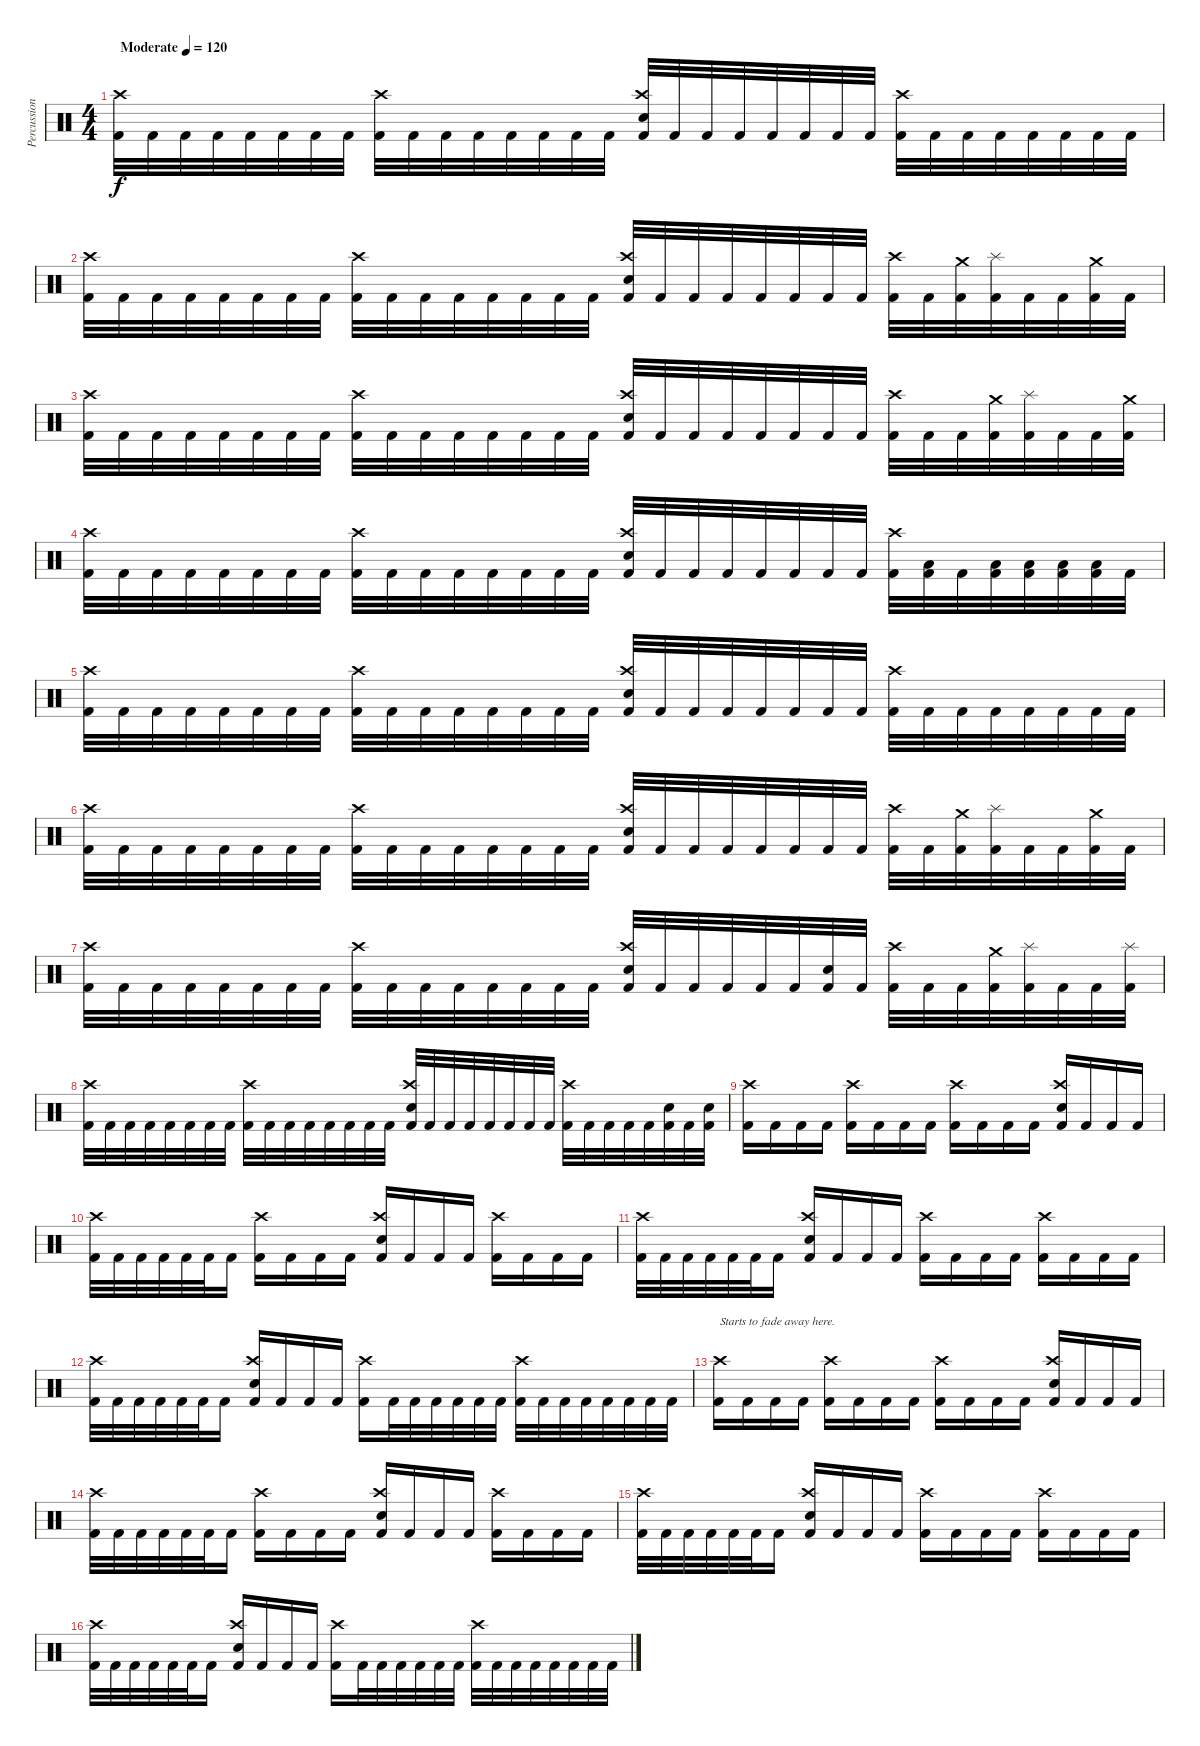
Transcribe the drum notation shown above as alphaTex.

\track ("Percussion" "Percussion") {instrument percussion}
\staff {score}
\articulation defaults
\ts (4 4)
\tempo (120 "Moderate")
\clef neutral
\ks c
("Kick (hit) 2" "Crash high (hit)").32{dy f} "Kick (hit) 2".32 "Kick (hit) 2".32 "Kick (hit) 2".32 "Kick (hit) 2".32 "Kick (hit) 2".32 "Kick (hit) 2".32 "Kick (hit) 2".32 ("Kick (hit) 2" "Crash high (hit)").32 "Kick (hit) 2".32 "Kick (hit) 2".32 "Kick (hit) 2".32 "Kick (hit) 2".32 "Kick (hit) 2".32 "Kick (hit) 2".32 "Kick (hit) 2".32 ("Kick (hit) 2" "Electric Snare (hit)" "Crash high (hit)").32 "Kick (hit) 2".32 "Kick (hit) 2".32 "Kick (hit) 2".32 "Kick (hit) 2".32 "Kick (hit) 2".32 "Kick (hit) 2".32 "Kick (hit) 2".32 ("Kick (hit) 2" "Crash high (hit)").32 "Kick (hit) 2".32 "Kick (hit) 2".32 "Kick (hit) 2".32 "Kick (hit) 2".32 "Kick (hit) 2".32 "Kick (hit) 2".32 "Kick (hit) 2".32 |
("Kick (hit) 2" "Crash high (hit)").32 "Kick (hit) 2".32 "Kick (hit) 2".32 "Kick (hit) 2".32 "Kick (hit) 2".32 "Kick (hit) 2".32 "Kick (hit) 2".32 "Kick (hit) 2".32 ("Kick (hit) 2" "Crash high (hit)").32 "Kick (hit) 2".32 "Kick (hit) 2".32 "Kick (hit) 2".32 "Kick (hit) 2".32 "Kick (hit) 2".32 "Kick (hit) 2".32 "Kick (hit) 2".32 ("Kick (hit) 2" "Electric Snare (hit)" "Crash high (hit)").32 "Kick (hit) 2".32 "Kick (hit) 2".32 "Kick (hit) 2".32 "Kick (hit) 2".32 "Kick (hit) 2".32 "Kick (hit) 2".32 "Kick (hit) 2".32 ("Kick (hit) 2" "Crash high (hit)").32 "Kick (hit) 2".32 ("Kick (hit) 2" "Crash medium (hit)").32 ("Kick (hit) 2" "Splash (hit)").32 "Kick (hit) 2".32 "Kick (hit) 2".32 ("Kick (hit) 2" "Crash medium (hit)").32 "Kick (hit) 2".32 |
("Kick (hit) 2" "Crash high (hit)").32 "Kick (hit) 2".32 "Kick (hit) 2".32 "Kick (hit) 2".32 "Kick (hit) 2".32 "Kick (hit) 2".32 "Kick (hit) 2".32 "Kick (hit) 2".32 ("Kick (hit) 2" "Crash high (hit)").32 "Kick (hit) 2".32 "Kick (hit) 2".32 "Kick (hit) 2".32 "Kick (hit) 2".32 "Kick (hit) 2".32 "Kick (hit) 2".32 "Kick (hit) 2".32 ("Kick (hit) 2" "Electric Snare (hit)" "Crash high (hit)").32 "Kick (hit) 2".32 "Kick (hit) 2".32 "Kick (hit) 2".32 "Kick (hit) 2".32 "Kick (hit) 2".32 "Kick (hit) 2".32 "Kick (hit) 2".32 ("Kick (hit) 2" "Crash high (hit)").32 "Kick (hit) 2".32 "Kick (hit) 2".32 ("Kick (hit) 2" "Crash medium (hit)").32 ("Kick (hit) 2" "Splash (hit)").32 "Kick (hit) 2".32 "Kick (hit) 2".32 ("Kick (hit) 2" "Crash medium (hit)").32 |
("Kick (hit) 2" "Crash high (hit)").32 "Kick (hit) 2".32 "Kick (hit) 2".32 "Kick (hit) 2".32 "Kick (hit) 2".32 "Kick (hit) 2".32 "Kick (hit) 2".32 "Kick (hit) 2".32 ("Kick (hit) 2" "Crash high (hit)").32 "Kick (hit) 2".32 "Kick (hit) 2".32 "Kick (hit) 2".32 "Kick (hit) 2".32 "Kick (hit) 2".32 "Kick (hit) 2".32 "Kick (hit) 2".32 ("Kick (hit) 2" "Electric Snare (hit)" "Crash high (hit)").32 "Kick (hit) 2".32 "Kick (hit) 2".32 "Kick (hit) 2".32 "Kick (hit) 2".32 "Kick (hit) 2".32 "Kick (hit) 2".32 "Kick (hit) 2".32 ("Kick (hit) 2" "Crash high (hit)").32 ("Kick (hit) 2" "Low Tom (hit)").32 "Kick (hit) 2".32 ("Kick (hit) 2" "Low Floor Tom (hit)").32 ("Kick (hit) 2" "Low Floor Tom (hit)").32 ("Kick (hit) 2" "Low Tom (hit)").32 ("Kick (hit) 2" "Low Tom (hit)").32 "Kick (hit) 2".32 |
("Kick (hit) 2" "Crash high (hit)").32 "Kick (hit) 2".32 "Kick (hit) 2".32 "Kick (hit) 2".32 "Kick (hit) 2".32 "Kick (hit) 2".32 "Kick (hit) 2".32 "Kick (hit) 2".32 ("Kick (hit) 2" "Crash high (hit)").32 "Kick (hit) 2".32 "Kick (hit) 2".32 "Kick (hit) 2".32 "Kick (hit) 2".32 "Kick (hit) 2".32 "Kick (hit) 2".32 "Kick (hit) 2".32 ("Kick (hit) 2" "Electric Snare (hit)" "Crash high (hit)").32 "Kick (hit) 2".32 "Kick (hit) 2".32 "Kick (hit) 2".32 "Kick (hit) 2".32 "Kick (hit) 2".32 "Kick (hit) 2".32 "Kick (hit) 2".32 ("Kick (hit) 2" "Crash high (hit)").32 "Kick (hit) 2".32 "Kick (hit) 2".32 "Kick (hit) 2".32 "Kick (hit) 2".32 "Kick (hit) 2".32 "Kick (hit) 2".32 "Kick (hit) 2".32 |
("Kick (hit) 2" "Crash high (hit)").32 "Kick (hit) 2".32 "Kick (hit) 2".32 "Kick (hit) 2".32 "Kick (hit) 2".32 "Kick (hit) 2".32 "Kick (hit) 2".32 "Kick (hit) 2".32 ("Kick (hit) 2" "Crash high (hit)").32 "Kick (hit) 2".32 "Kick (hit) 2".32 "Kick (hit) 2".32 "Kick (hit) 2".32 "Kick (hit) 2".32 "Kick (hit) 2".32 "Kick (hit) 2".32 ("Kick (hit) 2" "Electric Snare (hit)" "Crash high (hit)").32 "Kick (hit) 2".32 "Kick (hit) 2".32 "Kick (hit) 2".32 "Kick (hit) 2".32 "Kick (hit) 2".32 "Kick (hit) 2".32 "Kick (hit) 2".32 ("Kick (hit) 2" "Crash high (hit)").32 "Kick (hit) 2".32 ("Kick (hit) 2" "Crash medium (hit)").32 ("Kick (hit) 2" "Splash (hit)").32 "Kick (hit) 2".32 "Kick (hit) 2".32 ("Kick (hit) 2" "Crash medium (hit)").32 "Kick (hit) 2".32 |
("Kick (hit) 2" "Crash high (hit)").32 "Kick (hit) 2".32 "Kick (hit) 2".32 "Kick (hit) 2".32 "Kick (hit) 2".32 "Kick (hit) 2".32 "Kick (hit) 2".32 "Kick (hit) 2".32 ("Kick (hit) 2" "Crash high (hit)").32 "Kick (hit) 2".32 "Kick (hit) 2".32 "Kick (hit) 2".32 "Kick (hit) 2".32 "Kick (hit) 2".32 "Kick (hit) 2".32 "Kick (hit) 2".32 ("Kick (hit) 2" "Electric Snare (hit)" "Crash high (hit)").32 "Kick (hit) 2".32 "Kick (hit) 2".32 "Kick (hit) 2".32 "Kick (hit) 2".32 "Kick (hit) 2".32 ("Kick (hit) 2" "Electric Snare (hit)").32 "Kick (hit) 2".32 ("Kick (hit) 2" "Crash high (hit)").32 "Kick (hit) 2".32 "Kick (hit) 2".32 ("Kick (hit) 2" "Crash medium (hit)").32 ("Kick (hit) 2" "Splash (hit)").32 "Kick (hit) 2".32 "Kick (hit) 2".32 ("Kick (hit) 2" "Splash (hit)").32 |
("Kick (hit) 2" "Crash high (hit)").32 "Kick (hit) 2".32 "Kick (hit) 2".32 "Kick (hit) 2".32 "Kick (hit) 2".32 "Kick (hit) 2".32 "Kick (hit) 2".32 "Kick (hit) 2".32 ("Kick (hit) 2" "Crash high (hit)").32 "Kick (hit) 2".32 "Kick (hit) 2".32 "Kick (hit) 2".32 "Kick (hit) 2".32 "Kick (hit) 2".32 "Kick (hit) 2".32 "Kick (hit) 2".32 ("Kick (hit) 2" "Electric Snare (hit)" "Crash high (hit)").32 "Kick (hit) 2".32 "Kick (hit) 2".32 "Kick (hit) 2".32 "Kick (hit) 2".32 "Kick (hit) 2".32 "Kick (hit) 2".32 "Kick (hit) 2".32 ("Kick (hit) 2" "Crash high (hit)").32 "Kick (hit) 2".32 "Kick (hit) 2".32 "Kick (hit) 2".32 "Kick (hit) 2".32 ("Kick (hit) 2" "Electric Snare (hit)").32 "Kick (hit) 2".32 ("Kick (hit) 2" "Electric Snare (hit)").32 |
("Kick (hit) 2" "Crash high (hit)").16 "Kick (hit) 2".16 "Kick (hit) 2".16 "Kick (hit) 2".16 ("Kick (hit) 2" "Crash high (hit)").16 "Kick (hit) 2".16 "Kick (hit) 2".16 "Kick (hit) 2".16 ("Kick (hit) 2" "Crash high (hit)").16 "Kick (hit) 2".16 "Kick (hit) 2".16 "Kick (hit) 2".16 ("Kick (hit) 2" "Electric Snare (hit)" "Crash high (hit)").16 "Kick (hit) 2".16 "Kick (hit) 2".16 "Kick (hit) 2".16 |
("Kick (hit) 2" "Crash high (hit)").32 "Kick (hit) 2".32 "Kick (hit) 2".32 "Kick (hit) 2".32 "Kick (hit) 2".32 "Kick (hit) 2".32 "Kick (hit) 2".16 ("Kick (hit) 2" "Crash high (hit)").16 "Kick (hit) 2".16 "Kick (hit) 2".16 "Kick (hit) 2".16 ("Kick (hit) 2" "Electric Snare (hit)" "Crash high (hit)").16 "Kick (hit) 2".16 "Kick (hit) 2".16 "Kick (hit) 2".16 ("Kick (hit) 2" "Crash high (hit)").16 "Kick (hit) 2".16 "Kick (hit) 2".16 "Kick (hit) 2".16 |
("Kick (hit) 2" "Crash high (hit)").32 "Kick (hit) 2".32 "Kick (hit) 2".32 "Kick (hit) 2".32 "Kick (hit) 2".32 "Kick (hit) 2".32 "Kick (hit) 2".16 ("Kick (hit) 2" "Electric Snare (hit)" "Crash high (hit)").16 "Kick (hit) 2".16 "Kick (hit) 2".16 "Kick (hit) 2".16 ("Kick (hit) 2" "Crash high (hit)").16 "Kick (hit) 2".16 "Kick (hit) 2".16 "Kick (hit) 2".16 ("Kick (hit) 2" "Crash high (hit)").16 "Kick (hit) 2".16 "Kick (hit) 2".16 "Kick (hit) 2".16 |
("Kick (hit) 2" "Crash high (hit)").32 "Kick (hit) 2".32 "Kick (hit) 2".32 "Kick (hit) 2".32 "Kick (hit) 2".32 "Kick (hit) 2".32 "Kick (hit) 2".16 ("Kick (hit) 2" "Electric Snare (hit)" "Crash high (hit)").16 "Kick (hit) 2".16 "Kick (hit) 2".16 "Kick (hit) 2".16 ("Kick (hit) 2" "Crash high (hit)").16 "Kick (hit) 2".32 "Kick (hit) 2".32 "Kick (hit) 2".32 "Kick (hit) 2".32 "Kick (hit) 2".32 "Kick (hit) 2".32 ("Kick (hit) 2" "Crash high (hit)").32 "Kick (hit) 2".32 "Kick (hit) 2".32 "Kick (hit) 2".32 "Kick (hit) 2".32 "Kick (hit) 2".32 "Kick (hit) 2".32 "Kick (hit) 2".32 |
("Kick (hit) 2" "Crash high (hit)").16{txt "Starts to fade away here."} "Kick (hit) 2".16 "Kick (hit) 2".16 "Kick (hit) 2".16 ("Kick (hit) 2" "Crash high (hit)").16 "Kick (hit) 2".16 "Kick (hit) 2".16 "Kick (hit) 2".16 ("Kick (hit) 2" "Crash high (hit)").16 "Kick (hit) 2".16 "Kick (hit) 2".16 "Kick (hit) 2".16 ("Kick (hit) 2" "Electric Snare (hit)" "Crash high (hit)").16 "Kick (hit) 2".16 "Kick (hit) 2".16 "Kick (hit) 2".16 |
("Kick (hit) 2" "Crash high (hit)").32 "Kick (hit) 2".32 "Kick (hit) 2".32 "Kick (hit) 2".32 "Kick (hit) 2".32 "Kick (hit) 2".32 "Kick (hit) 2".16 ("Kick (hit) 2" "Crash high (hit)").16 "Kick (hit) 2".16 "Kick (hit) 2".16 "Kick (hit) 2".16 ("Kick (hit) 2" "Electric Snare (hit)" "Crash high (hit)").16 "Kick (hit) 2".16 "Kick (hit) 2".16 "Kick (hit) 2".16 ("Kick (hit) 2" "Crash high (hit)").16 "Kick (hit) 2".16 "Kick (hit) 2".16 "Kick (hit) 2".16 |
("Kick (hit) 2" "Crash high (hit)").32 "Kick (hit) 2".32 "Kick (hit) 2".32 "Kick (hit) 2".32 "Kick (hit) 2".32 "Kick (hit) 2".32 "Kick (hit) 2".16 ("Kick (hit) 2" "Electric Snare (hit)" "Crash high (hit)").16 "Kick (hit) 2".16 "Kick (hit) 2".16 "Kick (hit) 2".16 ("Kick (hit) 2" "Crash high (hit)").16 "Kick (hit) 2".16 "Kick (hit) 2".16 "Kick (hit) 2".16 ("Kick (hit) 2" "Crash high (hit)").16 "Kick (hit) 2".16 "Kick (hit) 2".16 "Kick (hit) 2".16 |
("Kick (hit) 2" "Crash high (hit)").32 "Kick (hit) 2".32 "Kick (hit) 2".32 "Kick (hit) 2".32 "Kick (hit) 2".32 "Kick (hit) 2".32 "Kick (hit) 2".16 ("Kick (hit) 2" "Electric Snare (hit)" "Crash high (hit)").16 "Kick (hit) 2".16 "Kick (hit) 2".16 "Kick (hit) 2".16 ("Kick (hit) 2" "Crash high (hit)").16 "Kick (hit) 2".32 "Kick (hit) 2".32 "Kick (hit) 2".32 "Kick (hit) 2".32 "Kick (hit) 2".32 "Kick (hit) 2".32 ("Kick (hit) 2" "Crash high (hit)").32 "Kick (hit) 2".32 "Kick (hit) 2".32 "Kick (hit) 2".32 "Kick (hit) 2".32 "Kick (hit) 2".32 "Kick (hit) 2".32 "Kick (hit) 2".32
